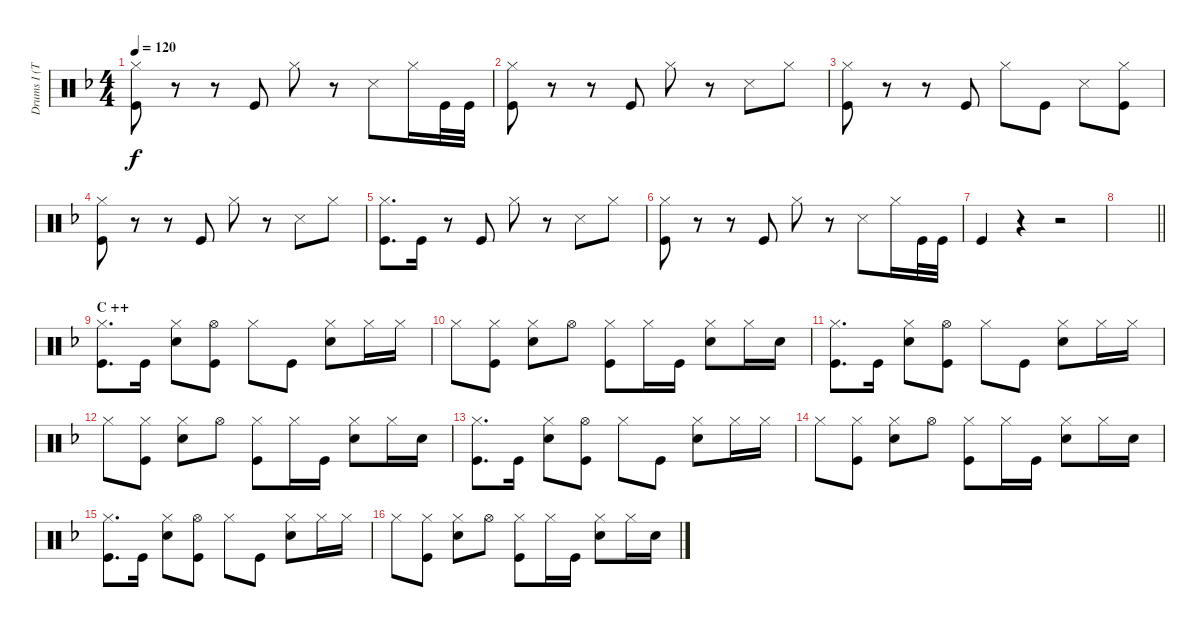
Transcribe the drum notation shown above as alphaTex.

\track ("Drums I (Tainaka Ritsu)" "Drums I (T") {instrument percussion}
\staff {score}
\articulation defaults
\ts (4 4)
\tempo 120
\clef neutral
\ks f
("Hi-Hat (closed)" "Kick (hit)").8{dy f} r.8 r.8 "Kick (hit)".8 "Hi-Hat (closed)".8 r.8 "Snare (side stick) 3".8 "Hi-Hat (closed)".16 "Kick (hit)".32 "Kick (hit)".32 |
("Hi-Hat (closed)" "Kick (hit)").8 r.8 r.8 "Kick (hit)".8 "Hi-Hat (closed)".8 r.8 "Snare (side stick) 3".8 "Hi-Hat (closed)".8 |
("Hi-Hat (closed)" "Kick (hit)").8 r.8 r.8 "Kick (hit)".8 "Hi-Hat (closed)".8 "Kick (hit)".8 "Snare (side stick) 3".8 ("Hi-Hat (closed)" "Kick (hit)").8 |
("Hi-Hat (closed)" "Kick (hit)").8 r.8 r.8 "Kick (hit)".8 "Hi-Hat (closed)".8 r.8 "Snare (side stick) 3".8 "Hi-Hat (closed)".8 |
("Hi-Hat (closed)" "Kick (hit)").8{d} "Kick (hit)".16 r.8 "Kick (hit)".8 "Hi-Hat (closed)".8 r.8 "Snare (side stick) 3".8 "Hi-Hat (closed)".8 |
("Hi-Hat (closed)" "Kick (hit)").8 r.8 r.8 "Kick (hit)".8 "Hi-Hat (closed)".8 r.8 "Snare (side stick) 3".8 "Hi-Hat (closed)".16 "Kick (hit)".32 "Kick (hit)".32 |
"Kick (hit)".4 r.4 r.2 |
\barLineRight lightlight
|
\section ("" "C ++")
("Hi-Hat (closed)" "Kick (hit)").8{d} "Kick (hit)".16 ("Hi-Hat (closed)" "Snare (hit) 2").8 ("Hi-Hat (open)" "Kick (hit)").8 "Hi-Hat (closed)".8 "Kick (hit)".8 ("Hi-Hat (closed)" "Snare (hit) 2").8 "Hi-Hat (closed)".16 "Hi-Hat (closed)".16 |
"Hi-Hat (closed)".8 ("Hi-Hat (closed)" "Kick (hit)").8 ("Hi-Hat (closed)" "Snare (hit) 2").8 "Hi-Hat (open)".8 ("Hi-Hat (closed)" "Kick (hit)").8 "Hi-Hat (closed)".16 "Kick (hit)".16 ("Hi-Hat (closed)" "Snare (hit) 2").8 "Hi-Hat (closed)".16 "Snare (hit) 2".16 |
("Hi-Hat (closed)" "Kick (hit)").8{d} "Kick (hit)".16 ("Hi-Hat (closed)" "Snare (hit) 2").8 ("Hi-Hat (open)" "Kick (hit)").8 "Hi-Hat (closed)".8 "Kick (hit)".8 ("Hi-Hat (closed)" "Snare (hit) 2").8 "Hi-Hat (closed)".16 "Hi-Hat (closed)".16 |
"Hi-Hat (closed)".8 ("Hi-Hat (closed)" "Kick (hit)").8 ("Hi-Hat (closed)" "Snare (hit) 2").8 "Hi-Hat (open)".8 ("Hi-Hat (closed)" "Kick (hit)").8 "Hi-Hat (closed)".16 "Kick (hit)".16 ("Hi-Hat (closed)" "Snare (hit) 2").8 "Hi-Hat (closed)".16 "Snare (hit) 2".16 |
("Hi-Hat (closed)" "Kick (hit)").8{d} "Kick (hit)".16 ("Hi-Hat (closed)" "Snare (hit) 2").8 ("Hi-Hat (open)" "Kick (hit)").8 "Hi-Hat (closed)".8 "Kick (hit)".8 ("Hi-Hat (closed)" "Snare (hit) 2").8 "Hi-Hat (closed)".16 "Hi-Hat (closed)".16 |
"Hi-Hat (closed)".8 ("Hi-Hat (closed)" "Kick (hit)").8 ("Hi-Hat (closed)" "Snare (hit) 2").8 "Hi-Hat (open)".8 ("Hi-Hat (closed)" "Kick (hit)").8 "Hi-Hat (closed)".16 "Kick (hit)".16 ("Hi-Hat (closed)" "Snare (hit) 2").8 "Hi-Hat (closed)".16 "Snare (hit) 2".16 |
("Hi-Hat (closed)" "Kick (hit)").8{d} "Kick (hit)".16 ("Hi-Hat (closed)" "Snare (hit) 2").8 ("Hi-Hat (open)" "Kick (hit)").8 "Hi-Hat (closed)".8 "Kick (hit)".8 ("Hi-Hat (closed)" "Snare (hit) 2").8 "Hi-Hat (closed)".16 "Hi-Hat (closed)".16 |
"Hi-Hat (closed)".8 ("Hi-Hat (closed)" "Kick (hit)").8 ("Hi-Hat (closed)" "Snare (hit) 2").8 "Hi-Hat (open)".8 ("Hi-Hat (closed)" "Kick (hit)").8 "Hi-Hat (closed)".16 "Kick (hit)".16 ("Hi-Hat (closed)" "Snare (hit) 2").8 "Hi-Hat (closed)".16 "Snare (hit) 2".16
